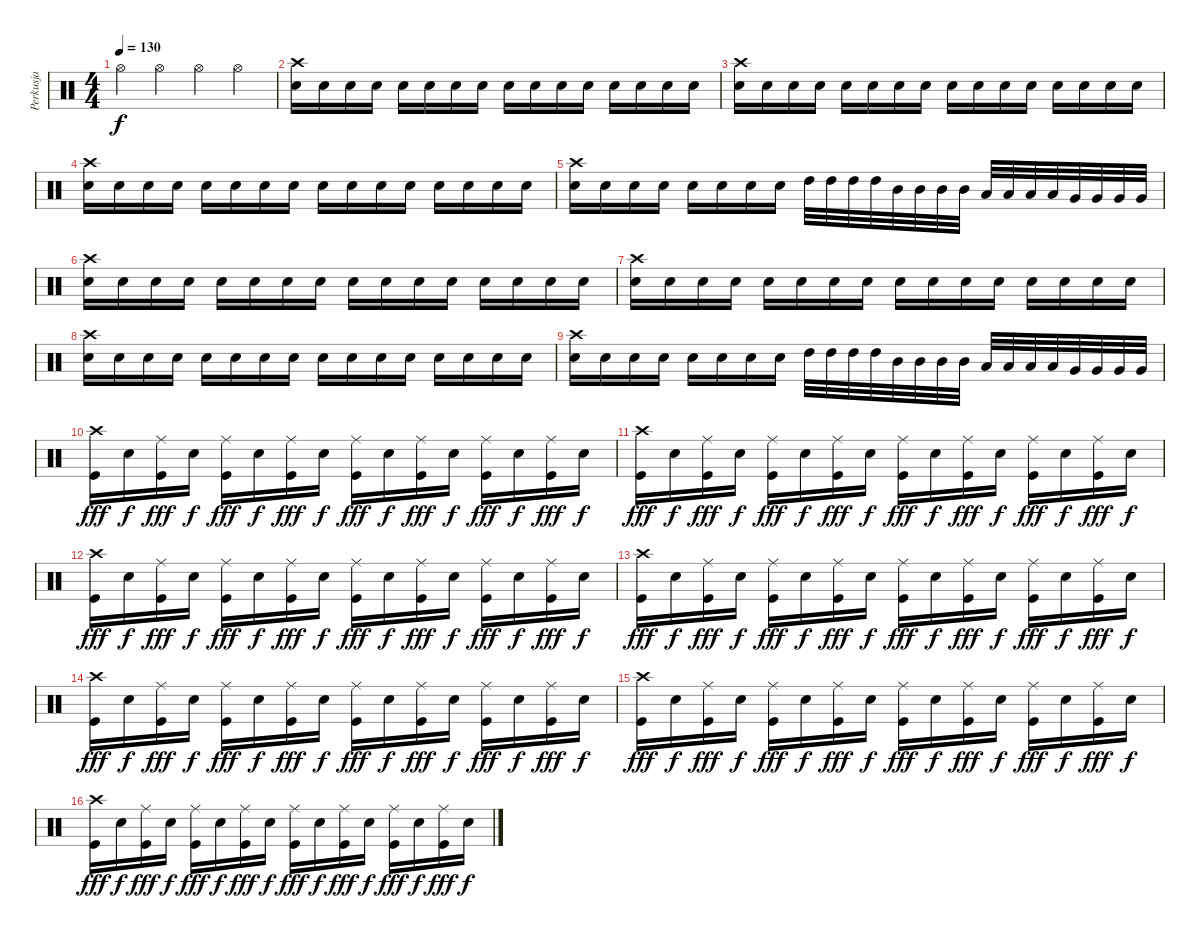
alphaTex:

\track ("Perkusja" "Perkusja") {instrument percussion}
\staff {score}
\articulation defaults
\ts (4 4)
\tempo 130
\clef neutral
\ks c "Hi-Hat (open)".4{dy f} "Hi-Hat (open)".4 "Hi-Hat (open)".4 "Hi-Hat (open)".4
|
("Crash high (hit)" "Snare (hit) 2").16 "Snare (hit) 2".16 "Snare (hit) 2".16 "Snare (hit) 2".16 "Snare (hit) 2".16 "Snare (hit) 2".16 "Snare (hit) 2".16 "Snare (hit) 2".16 "Snare (hit) 2".16 "Snare (hit) 2".16 "Snare (hit) 2".16 "Snare (hit) 2".16 "Snare (hit) 2".16 "Snare (hit) 2".16 "Snare (hit) 2".16 "Snare (hit) 2".16 |
("Crash high (hit)" "Snare (hit) 2").16 "Snare (hit) 2".16 "Snare (hit) 2".16 "Snare (hit) 2".16 "Snare (hit) 2".16 "Snare (hit) 2".16 "Snare (hit) 2".16 "Snare (hit) 2".16 "Snare (hit) 2".16 "Snare (hit) 2".16 "Snare (hit) 2".16 "Snare (hit) 2".16 "Snare (hit) 2".16 "Snare (hit) 2".16 "Snare (hit) 2".16 "Snare (hit) 2".16 |
("Crash high (hit)" "Snare (hit) 2").16 "Snare (hit) 2".16 "Snare (hit) 2".16 "Snare (hit) 2".16 "Snare (hit) 2".16 "Snare (hit) 2".16 "Snare (hit) 2".16 "Snare (hit) 2".16 "Snare (hit) 2".16 "Snare (hit) 2".16 "Snare (hit) 2".16 "Snare (hit) 2".16 "Snare (hit) 2".16 "Snare (hit) 2".16 "Snare (hit) 2".16 "Snare (hit) 2".16 |
("Crash high (hit)" "Snare (hit) 2").16 "Snare (hit) 2".16 "Snare (hit) 2".16 "Snare (hit) 2".16 "Snare (hit) 2".16 "Snare (hit) 2".16 "Snare (hit) 2".16 "Snare (hit) 2".16 "High Tom (hit)".32 "High Tom (hit)".32 "High Tom (hit)".32 "High Tom (hit)".32 "Mid Tom (hit)".32 "Mid Tom (hit)".32 "Mid Tom (hit)".32 "Mid Tom (hit)".32 "Low Tom (hit)".32 "Low Tom (hit)".32 "Low Tom (hit)".32 "Low Tom (hit)".32 "Very Low Tom (hit)".32 "Very Low Tom (hit)".32 "Very Low Tom (hit)".32 "Very Low Tom (hit)".32 |
("Crash high (hit)" "Snare (hit) 2").16 "Snare (hit) 2".16 "Snare (hit) 2".16 "Snare (hit) 2".16 "Snare (hit) 2".16 "Snare (hit) 2".16 "Snare (hit) 2".16 "Snare (hit) 2".16 "Snare (hit) 2".16 "Snare (hit) 2".16 "Snare (hit) 2".16 "Snare (hit) 2".16 "Snare (hit) 2".16 "Snare (hit) 2".16 "Snare (hit) 2".16 "Snare (hit) 2".16 |
("Crash high (hit)" "Snare (hit) 2").16 "Snare (hit) 2".16 "Snare (hit) 2".16 "Snare (hit) 2".16 "Snare (hit) 2".16 "Snare (hit) 2".16 "Snare (hit) 2".16 "Snare (hit) 2".16 "Snare (hit) 2".16 "Snare (hit) 2".16 "Snare (hit) 2".16 "Snare (hit) 2".16 "Snare (hit) 2".16 "Snare (hit) 2".16 "Snare (hit) 2".16 "Snare (hit) 2".16 |
("Crash high (hit)" "Snare (hit) 2").16 "Snare (hit) 2".16 "Snare (hit) 2".16 "Snare (hit) 2".16 "Snare (hit) 2".16 "Snare (hit) 2".16 "Snare (hit) 2".16 "Snare (hit) 2".16 "Snare (hit) 2".16 "Snare (hit) 2".16 "Snare (hit) 2".16 "Snare (hit) 2".16 "Snare (hit) 2".16 "Snare (hit) 2".16 "Snare (hit) 2".16 "Snare (hit) 2".16 |
("Crash high (hit)" "Snare (hit) 2").16 "Snare (hit) 2".16 "Snare (hit) 2".16 "Snare (hit) 2".16 "Snare (hit) 2".16 "Snare (hit) 2".16 "Snare (hit) 2".16 "Snare (hit) 2".16 "High Tom (hit)".32 "High Tom (hit)".32 "High Tom (hit)".32 "High Tom (hit)".32 "Mid Tom (hit)".32 "Mid Tom (hit)".32 "Mid Tom (hit)".32 "Mid Tom (hit)".32 "Low Tom (hit)".32 "Low Tom (hit)".32 "Low Tom (hit)".32 "Low Tom (hit)".32 "Very Low Tom (hit)".32 "Very Low Tom (hit)".32 "Very Low Tom (hit)".32 "Very Low Tom (hit)".32 |
("Crash high (hit)" "Kick (hit)").16{dy fff} "Snare (hit) 2".16{dy f} ("Ride (middle)" "Kick (hit)").16{dy fff} "Snare (hit) 2".16{dy f} ("Ride (middle)" "Kick (hit)").16{dy fff} "Snare (hit) 2".16{dy f} ("Ride (middle)" "Kick (hit)").16{dy fff} "Snare (hit) 2".16{dy f} ("Ride (middle)" "Kick (hit)").16{dy fff} "Snare (hit) 2".16{dy f} ("Ride (middle)" "Kick (hit)").16{dy fff} "Snare (hit) 2".16{dy f} ("Ride (middle)" "Kick (hit)").16{dy fff} "Snare (hit) 2".16{dy f} ("Ride (middle)" "Kick (hit)").16{dy fff} "Snare (hit) 2".16{dy f} |
("Crash high (hit)" "Kick (hit)").16{dy fff} "Snare (hit) 2".16{dy f} ("Ride (middle)" "Kick (hit)").16{dy fff} "Snare (hit) 2".16{dy f} ("Ride (middle)" "Kick (hit)").16{dy fff} "Snare (hit) 2".16{dy f} ("Ride (middle)" "Kick (hit)").16{dy fff} "Snare (hit) 2".16{dy f} ("Ride (middle)" "Kick (hit)").16{dy fff} "Snare (hit) 2".16{dy f} ("Ride (middle)" "Kick (hit)").16{dy fff} "Snare (hit) 2".16{dy f} ("Ride (middle)" "Kick (hit)").16{dy fff} "Snare (hit) 2".16{dy f} ("Ride (middle)" "Kick (hit)").16{dy fff} "Snare (hit) 2".16{dy f} |
("Crash high (hit)" "Kick (hit)").16{dy fff} "Snare (hit) 2".16{dy f} ("Ride (middle)" "Kick (hit)").16{dy fff} "Snare (hit) 2".16{dy f} ("Ride (middle)" "Kick (hit)").16{dy fff} "Snare (hit) 2".16{dy f} ("Ride (middle)" "Kick (hit)").16{dy fff} "Snare (hit) 2".16{dy f} ("Ride (middle)" "Kick (hit)").16{dy fff} "Snare (hit) 2".16{dy f} ("Ride (middle)" "Kick (hit)").16{dy fff} "Snare (hit) 2".16{dy f} ("Ride (middle)" "Kick (hit)").16{dy fff} "Snare (hit) 2".16{dy f} ("Ride (middle)" "Kick (hit)").16{dy fff} "Snare (hit) 2".16{dy f} |
("Crash high (hit)" "Kick (hit)").16{dy fff} "Snare (hit) 2".16{dy f} ("Ride (middle)" "Kick (hit)").16{dy fff} "Snare (hit) 2".16{dy f} ("Ride (middle)" "Kick (hit)").16{dy fff} "Snare (hit) 2".16{dy f} ("Ride (middle)" "Kick (hit)").16{dy fff} "Snare (hit) 2".16{dy f} ("Ride (middle)" "Kick (hit)").16{dy fff} "Snare (hit) 2".16{dy f} ("Ride (middle)" "Kick (hit)").16{dy fff} "Snare (hit) 2".16{dy f} ("Ride (middle)" "Kick (hit)").16{dy fff} "Snare (hit) 2".16{dy f} ("Ride (middle)" "Kick (hit)").16{dy fff} "Snare (hit) 2".16{dy f} |
("Crash high (hit)" "Kick (hit)").16{dy fff} "Snare (hit) 2".16{dy f} ("Ride (middle)" "Kick (hit)").16{dy fff} "Snare (hit) 2".16{dy f} ("Ride (middle)" "Kick (hit)").16{dy fff} "Snare (hit) 2".16{dy f} ("Ride (middle)" "Kick (hit)").16{dy fff} "Snare (hit) 2".16{dy f} ("Ride (middle)" "Kick (hit)").16{dy fff} "Snare (hit) 2".16{dy f} ("Ride (middle)" "Kick (hit)").16{dy fff} "Snare (hit) 2".16{dy f} ("Ride (middle)" "Kick (hit)").16{dy fff} "Snare (hit) 2".16{dy f} ("Ride (middle)" "Kick (hit)").16{dy fff} "Snare (hit) 2".16{dy f} |
("Crash high (hit)" "Kick (hit)").16{dy fff} "Snare (hit) 2".16{dy f} ("Ride (middle)" "Kick (hit)").16{dy fff} "Snare (hit) 2".16{dy f} ("Ride (middle)" "Kick (hit)").16{dy fff} "Snare (hit) 2".16{dy f} ("Ride (middle)" "Kick (hit)").16{dy fff} "Snare (hit) 2".16{dy f} ("Ride (middle)" "Kick (hit)").16{dy fff} "Snare (hit) 2".16{dy f} ("Ride (middle)" "Kick (hit)").16{dy fff} "Snare (hit) 2".16{dy f} ("Ride (middle)" "Kick (hit)").16{dy fff} "Snare (hit) 2".16{dy f} ("Ride (middle)" "Kick (hit)").16{dy fff} "Snare (hit) 2".16{dy f} |
("Crash high (hit)" "Kick (hit)").16{dy fff} "Snare (hit) 2".16{dy f} ("Ride (middle)" "Kick (hit)").16{dy fff} "Snare (hit) 2".16{dy f} ("Ride (middle)" "Kick (hit)").16{dy fff} "Snare (hit) 2".16{dy f} ("Ride (middle)" "Kick (hit)").16{dy fff} "Snare (hit) 2".16{dy f} ("Ride (middle)" "Kick (hit)").16{dy fff} "Snare (hit) 2".16{dy f} ("Ride (middle)" "Kick (hit)").16{dy fff} "Snare (hit) 2".16{dy f} ("Ride (middle)" "Kick (hit)").16{dy fff} "Snare (hit) 2".16{dy f} ("Ride (middle)" "Kick (hit)").16{dy fff} "Snare (hit) 2".16{dy f}
